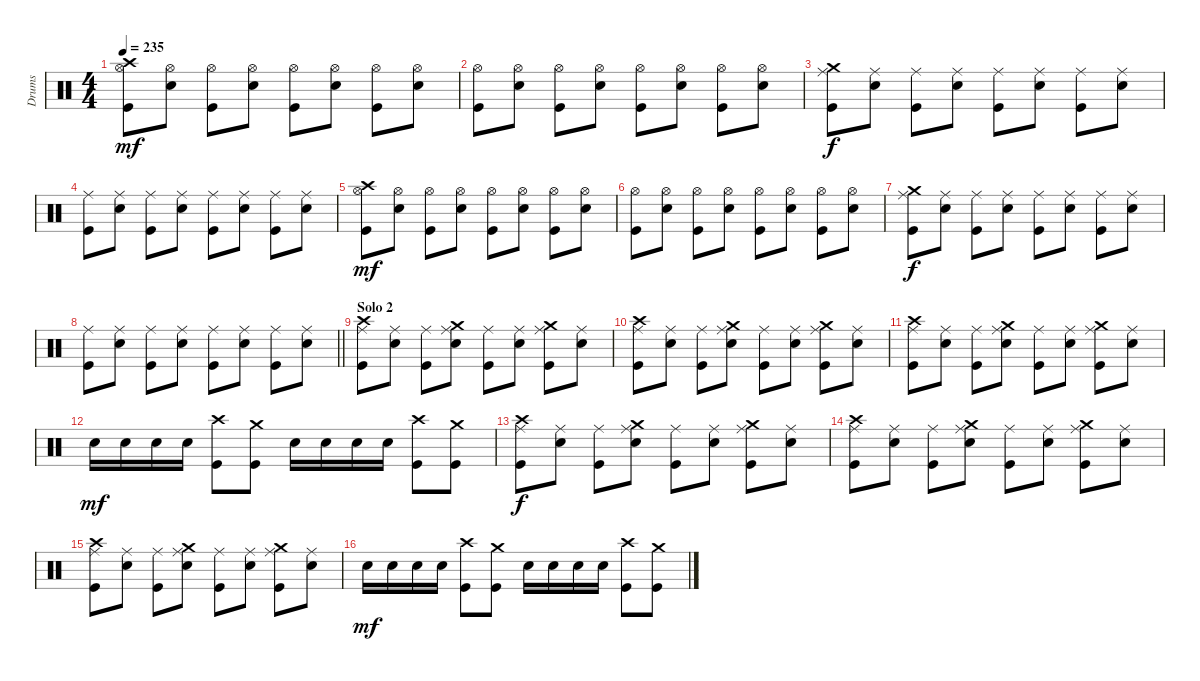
\track ("Drums" "Drums") {instrument percussion}
\staff {score}
\articulation defaults
\ts (4 4)
\tempo 235
\clef neutral
\ks c
("Crash high (hit)" "Hi-Hat (open)" "Kick (hit)").8{dy mf} ("Hi-Hat (open)" "Electric Snare (hit)").8 ("Hi-Hat (open)" "Kick (hit)").8 ("Hi-Hat (open)" "Electric Snare (hit)").8 ("Hi-Hat (open)" "Kick (hit)").8 ("Hi-Hat (open)" "Electric Snare (hit)").8 ("Hi-Hat (open)" "Kick (hit)").8 ("Hi-Hat (open)" "Electric Snare (hit)").8 |
("Hi-Hat (open)" "Kick (hit)").8 ("Hi-Hat (open)" "Electric Snare (hit)").8 ("Hi-Hat (open)" "Kick (hit)").8 ("Hi-Hat (open)" "Electric Snare (hit)").8 ("Hi-Hat (open)" "Kick (hit)").8 ("Hi-Hat (open)" "Electric Snare (hit)").8 ("Hi-Hat (open)" "Kick (hit)").8 ("Hi-Hat (open)" "Electric Snare (hit)").8 |
("Crash medium (hit)" "Ride (middle)" "Kick (hit)").8{dy f} ("Ride (middle)" "Electric Snare (hit)").8 ("Ride (middle)" "Kick (hit)").8 ("Ride (middle)" "Electric Snare (hit)").8 ("Ride (middle)" "Kick (hit)").8 ("Ride (middle)" "Electric Snare (hit)").8 ("Ride (middle)" "Kick (hit)").8 ("Ride (middle)" "Electric Snare (hit)").8 |
("Ride (middle)" "Kick (hit)").8 ("Ride (middle)" "Electric Snare (hit)").8 ("Ride (middle)" "Kick (hit)").8 ("Ride (middle)" "Electric Snare (hit)").8 ("Ride (middle)" "Kick (hit)").8 ("Ride (middle)" "Electric Snare (hit)").8 ("Ride (middle)" "Kick (hit)").8 ("Ride (middle)" "Electric Snare (hit)").8 |
("Crash high (hit)" "Hi-Hat (open)" "Kick (hit)").8{dy mf} ("Hi-Hat (open)" "Electric Snare (hit)").8 ("Hi-Hat (open)" "Kick (hit)").8 ("Hi-Hat (open)" "Electric Snare (hit)").8 ("Hi-Hat (open)" "Kick (hit)").8 ("Hi-Hat (open)" "Electric Snare (hit)").8 ("Hi-Hat (open)" "Kick (hit)").8 ("Hi-Hat (open)" "Electric Snare (hit)").8 |
("Hi-Hat (open)" "Kick (hit)").8 ("Hi-Hat (open)" "Electric Snare (hit)").8 ("Hi-Hat (open)" "Kick (hit)").8 ("Hi-Hat (open)" "Electric Snare (hit)").8 ("Hi-Hat (open)" "Kick (hit)").8 ("Hi-Hat (open)" "Electric Snare (hit)").8 ("Hi-Hat (open)" "Kick (hit)").8 ("Hi-Hat (open)" "Electric Snare (hit)").8 |
("Crash medium (hit)" "Ride (middle)" "Kick (hit)").8{dy f} ("Ride (middle)" "Electric Snare (hit)").8 ("Ride (middle)" "Kick (hit)").8 ("Ride (middle)" "Electric Snare (hit)").8 ("Ride (middle)" "Kick (hit)").8 ("Ride (middle)" "Electric Snare (hit)").8 ("Ride (middle)" "Kick (hit)").8 ("Ride (middle)" "Electric Snare (hit)").8 |
\barLineRight lightlight
("Ride (middle)" "Kick (hit)").8 ("Ride (middle)" "Electric Snare (hit)").8 ("Ride (middle)" "Kick (hit)").8 ("Ride (middle)" "Electric Snare (hit)").8 ("Ride (middle)" "Kick (hit)").8 ("Ride (middle)" "Electric Snare (hit)").8 ("Ride (middle)" "Kick (hit)").8 ("Ride (middle)" "Electric Snare (hit)").8 |
\section ("" "Solo 2")
("Crash high (hit)" "Ride (middle)" "Kick (hit)").8 ("Ride (middle)" "Electric Snare (hit)").8 ("Ride (middle)" "Kick (hit)").8 ("Crash medium (hit)" "Ride (middle)" "Electric Snare (hit)").8 ("Ride (middle)" "Kick (hit)").8 ("Ride (middle)" "Electric Snare (hit)").8 ("Crash medium (hit)" "Ride (middle)" "Kick (hit)").8 ("Ride (middle)" "Electric Snare (hit)").8 |
("Crash high (hit)" "Ride (middle)" "Kick (hit)").8 ("Ride (middle)" "Electric Snare (hit)").8 ("Ride (middle)" "Kick (hit)").8 ("Crash medium (hit)" "Ride (middle)" "Electric Snare (hit)").8 ("Ride (middle)" "Kick (hit)").8 ("Ride (middle)" "Electric Snare (hit)").8 ("Crash medium (hit)" "Ride (middle)" "Kick (hit)").8 ("Ride (middle)" "Electric Snare (hit)").8 |
("Crash high (hit)" "Ride (middle)" "Kick (hit)").8 ("Ride (middle)" "Electric Snare (hit)").8 ("Ride (middle)" "Kick (hit)").8 ("Crash medium (hit)" "Ride (middle)" "Electric Snare (hit)").8 ("Ride (middle)" "Kick (hit)").8 ("Ride (middle)" "Electric Snare (hit)").8 ("Crash medium (hit)" "Ride (middle)" "Kick (hit)").8 ("Ride (middle)" "Electric Snare (hit)").8 |
"Electric Snare (hit)".16{dy mf} "Electric Snare (hit)".16 "Electric Snare (hit)".16 "Electric Snare (hit)".16 ("Crash high (hit)" "Kick (hit)").8 ("Crash medium (hit)" "Kick (hit)").8 "Electric Snare (hit)".16 "Electric Snare (hit)".16 "Electric Snare (hit)".16 "Electric Snare (hit)".16 ("Crash high (hit)" "Kick (hit)").8 ("Crash medium (hit)" "Kick (hit)").8 |
("Crash high (hit)" "Ride (middle)" "Kick (hit)").8{dy f} ("Ride (middle)" "Electric Snare (hit)").8 ("Ride (middle)" "Kick (hit)").8 ("Crash medium (hit)" "Ride (middle)" "Electric Snare (hit)").8 ("Ride (middle)" "Kick (hit)").8 ("Ride (middle)" "Electric Snare (hit)").8 ("Crash medium (hit)" "Ride (middle)" "Kick (hit)").8 ("Ride (middle)" "Electric Snare (hit)").8 |
("Crash high (hit)" "Ride (middle)" "Kick (hit)").8 ("Ride (middle)" "Electric Snare (hit)").8 ("Ride (middle)" "Kick (hit)").8 ("Crash medium (hit)" "Ride (middle)" "Electric Snare (hit)").8 ("Ride (middle)" "Kick (hit)").8 ("Ride (middle)" "Electric Snare (hit)").8 ("Crash medium (hit)" "Ride (middle)" "Kick (hit)").8 ("Ride (middle)" "Electric Snare (hit)").8 |
("Crash high (hit)" "Ride (middle)" "Kick (hit)").8 ("Ride (middle)" "Electric Snare (hit)").8 ("Ride (middle)" "Kick (hit)").8 ("Crash medium (hit)" "Ride (middle)" "Electric Snare (hit)").8 ("Ride (middle)" "Kick (hit)").8 ("Ride (middle)" "Electric Snare (hit)").8 ("Crash medium (hit)" "Ride (middle)" "Kick (hit)").8 ("Ride (middle)" "Electric Snare (hit)").8 |
"Electric Snare (hit)".16{dy mf} "Electric Snare (hit)".16 "Electric Snare (hit)".16 "Electric Snare (hit)".16 ("Crash high (hit)" "Kick (hit)").8 ("Crash medium (hit)" "Kick (hit)").8 "Electric Snare (hit)".16 "Electric Snare (hit)".16 "Electric Snare (hit)".16 "Electric Snare (hit)".16 ("Crash high (hit)" "Kick (hit)").8 ("Crash medium (hit)" "Kick (hit)").8
